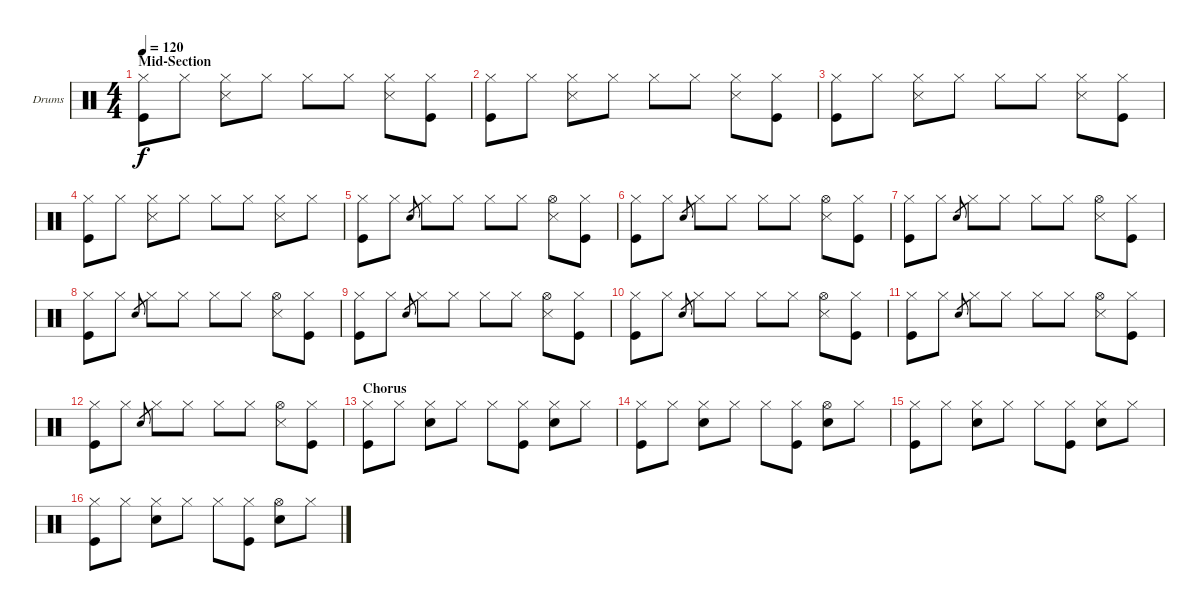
\defaultSystemsLayout 4
\bracketExtendMode groupsimilarinstruments
\firstSystemTrackNameOrientation horizontal
\otherSystemsTrackNameOrientation horizontal
\track ("Drums" "Drums") {instrument percussion}
\staff {score}
\articulation defaults
\ts (4 4)
\section ("" "Mid-Section")
\tempo 120
\clef neutral
\ks c
("Kick (hit)" "Hi-Hat (closed)").8{dy f} "Hi-Hat (closed)".8 ("Snare (side stick) 3" "Hi-Hat (closed)").8 "Hi-Hat (closed)".8 "Hi-Hat (closed)".8 "Hi-Hat (closed)".8 ("Snare (side stick) 3" "Hi-Hat (closed)").8 ("Hi-Hat (closed)" "Kick (hit)").8 |
("Kick (hit)" "Hi-Hat (closed)").8 "Hi-Hat (closed)".8 ("Snare (side stick) 3" "Hi-Hat (closed)").8 "Hi-Hat (closed)".8 "Hi-Hat (closed)".8 "Hi-Hat (closed)".8 ("Snare (side stick) 3" "Hi-Hat (closed)").8 ("Hi-Hat (closed)" "Kick (hit)").8 |
("Kick (hit)" "Hi-Hat (closed)").8 "Hi-Hat (closed)".8 ("Snare (side stick) 3" "Hi-Hat (closed)").8 "Hi-Hat (closed)".8 "Hi-Hat (closed)".8 "Hi-Hat (closed)".8 ("Snare (side stick) 3" "Hi-Hat (closed)").8 ("Hi-Hat (closed)" "Kick (hit)").8 |
("Kick (hit)" "Hi-Hat (closed)").8 "Hi-Hat (closed)".8 ("Snare (side stick) 3" "Hi-Hat (closed)").8 "Hi-Hat (closed)".8 "Hi-Hat (closed)".8 "Hi-Hat (closed)".8 ("Snare (side stick) 3" "Hi-Hat (closed)").8 "Hi-Hat (closed)".8 |
("Kick (hit)" "Hi-Hat (closed)").8 "Hi-Hat (closed)".8 "Snare (hit) 2".8{gr} "Hi-Hat (closed)".8 "Hi-Hat (closed)".8 "Hi-Hat (closed)".8 "Hi-Hat (closed)".8 ("Snare (side stick) 3" "Hi-Hat (open)").8 ("Hi-Hat (closed)" "Kick (hit)").8 |
("Kick (hit)" "Hi-Hat (closed)").8 "Hi-Hat (closed)".8 "Snare (hit) 2".8{gr} "Hi-Hat (closed)".8 "Hi-Hat (closed)".8 "Hi-Hat (closed)".8 "Hi-Hat (closed)".8 ("Snare (side stick) 3" "Hi-Hat (open)").8 ("Hi-Hat (closed)" "Kick (hit)").8 |
("Kick (hit)" "Hi-Hat (closed)").8 "Hi-Hat (closed)".8 "Snare (hit) 2".8{gr} "Hi-Hat (closed)".8 "Hi-Hat (closed)".8 "Hi-Hat (closed)".8 "Hi-Hat (closed)".8 ("Snare (side stick) 3" "Hi-Hat (open)").8 ("Hi-Hat (closed)" "Kick (hit)").8 |
("Kick (hit)" "Hi-Hat (closed)").8 "Hi-Hat (closed)".8 "Snare (hit) 2".8{gr} "Hi-Hat (closed)".8 "Hi-Hat (closed)".8 "Hi-Hat (closed)".8 "Hi-Hat (closed)".8 ("Snare (side stick) 3" "Hi-Hat (open)").8 ("Hi-Hat (closed)" "Kick (hit)").8 |
("Kick (hit)" "Hi-Hat (closed)").8 "Hi-Hat (closed)".8 "Snare (hit) 2".8{gr} "Hi-Hat (closed)".8 "Hi-Hat (closed)".8 "Hi-Hat (closed)".8 "Hi-Hat (closed)".8 ("Snare (side stick) 3" "Hi-Hat (open)").8 ("Hi-Hat (closed)" "Kick (hit)").8 |
("Kick (hit)" "Hi-Hat (closed)").8 "Hi-Hat (closed)".8 "Snare (hit) 2".8{gr} "Hi-Hat (closed)".8 "Hi-Hat (closed)".8 "Hi-Hat (closed)".8 "Hi-Hat (closed)".8 ("Snare (side stick) 3" "Hi-Hat (open)").8 ("Hi-Hat (closed)" "Kick (hit)").8 |
("Kick (hit)" "Hi-Hat (closed)").8 "Hi-Hat (closed)".8 "Snare (hit) 2".8{gr} "Hi-Hat (closed)".8 "Hi-Hat (closed)".8 "Hi-Hat (closed)".8 "Hi-Hat (closed)".8 ("Snare (side stick) 3" "Hi-Hat (open)").8 ("Hi-Hat (closed)" "Kick (hit)").8 |
("Kick (hit)" "Hi-Hat (closed)").8 "Hi-Hat (closed)".8 "Snare (hit) 2".8{gr} "Hi-Hat (closed)".8 "Hi-Hat (closed)".8 "Hi-Hat (closed)".8 "Hi-Hat (closed)".8 ("Snare (side stick) 3" "Hi-Hat (open)").8 ("Hi-Hat (closed)" "Kick (hit)").8 |
\section ("" "Chorus")
("Kick (hit)" "Hi-Hat (closed)").8 "Hi-Hat (closed)".8 ("Snare (hit) 2" "Hi-Hat (closed)").8 "Hi-Hat (closed)".8 "Hi-Hat (closed)".8 ("Kick (hit)" "Hi-Hat (closed)").8 ("Snare (hit) 2" "Hi-Hat (closed)").8 "Hi-Hat (closed)".8 |
("Kick (hit)" "Hi-Hat (closed)").8 "Hi-Hat (closed)".8 ("Snare (hit) 2" "Hi-Hat (closed)").8 "Hi-Hat (closed)".8 "Hi-Hat (closed)".8 ("Kick (hit)" "Hi-Hat (closed)").8 ("Snare (hit) 2" "Hi-Hat (open)").8 "Hi-Hat (closed)".8 |
("Kick (hit)" "Hi-Hat (closed)").8 "Hi-Hat (closed)".8 ("Snare (hit) 2" "Hi-Hat (closed)").8 "Hi-Hat (closed)".8 "Hi-Hat (closed)".8 ("Kick (hit)" "Hi-Hat (closed)").8 ("Snare (hit) 2" "Hi-Hat (closed)").8 "Hi-Hat (closed)".8 |
("Kick (hit)" "Hi-Hat (closed)").8 "Hi-Hat (closed)".8 ("Snare (hit) 2" "Hi-Hat (closed)").8 "Hi-Hat (closed)".8 "Hi-Hat (closed)".8 ("Kick (hit)" "Hi-Hat (closed)").8 ("Snare (hit) 2" "Hi-Hat (open)").8 "Hi-Hat (closed)".8
